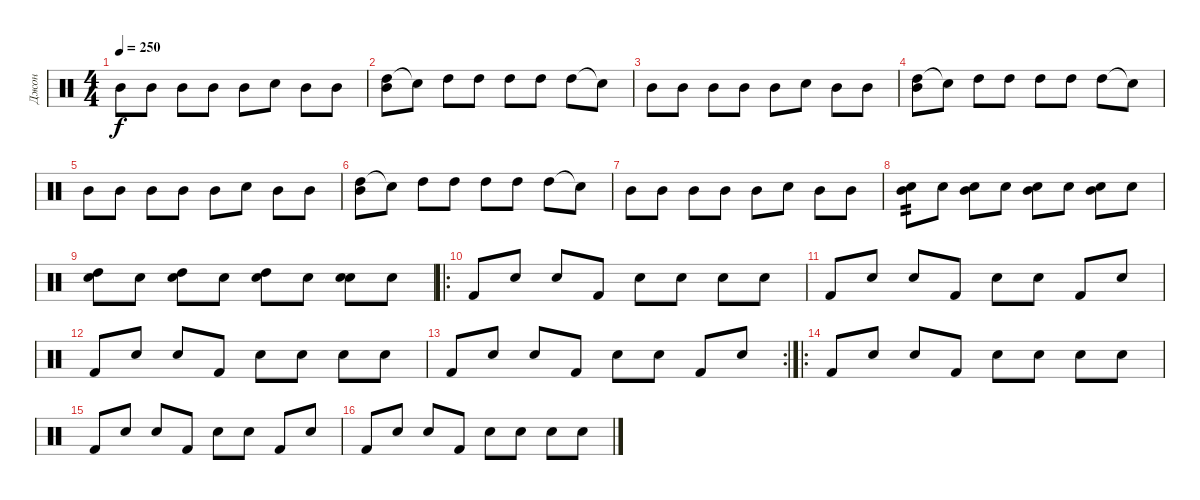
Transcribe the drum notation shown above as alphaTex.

\track ("Джон" "Джон") {instrument percussion}
\staff {score}
\articulation defaults
\ts (4 4)
\tempo 250
\clef neutral
\ks c "Mid Tom (hit)".8{dy f} "Mid Tom (hit)".8 "Mid Tom (hit)".8 "Mid Tom (hit)".8 "Mid Tom (hit)".8 "Snare (hit)".8 "Mid Tom (hit)".8 "Mid Tom (hit)".8
|
("High Tom (hit)" "Mid Tom (hit)").8 "Snare (hit)"{t}.8 "High Tom (hit)".8 "High Tom (hit)".8 "High Tom (hit)".8 "High Tom (hit)".8 "High Tom (hit)".8 "Snare (hit)"{t}.8 |
"Mid Tom (hit)".8 "Mid Tom (hit)".8 "Mid Tom (hit)".8 "Mid Tom (hit)".8 "Mid Tom (hit)".8 "Snare (hit)".8 "Mid Tom (hit)".8 "Mid Tom (hit)".8 |
("High Tom (hit)" "Mid Tom (hit)").8 "Snare (hit)"{t}.8 "High Tom (hit)".8 "High Tom (hit)".8 "High Tom (hit)".8 "High Tom (hit)".8 "High Tom (hit)".8 "Snare (hit)"{t}.8 |
"Mid Tom (hit)".8 "Mid Tom (hit)".8 "Mid Tom (hit)".8 "Mid Tom (hit)".8 "Mid Tom (hit)".8 "Snare (hit)".8 "Mid Tom (hit)".8 "Mid Tom (hit)".8 |
("High Tom (hit)" "Mid Tom (hit)").8 "Snare (hit)"{t}.8 "High Tom (hit)".8 "High Tom (hit)".8 "High Tom (hit)".8 "High Tom (hit)".8 "High Tom (hit)".8 "Snare (hit)"{t}.8 |
"Mid Tom (hit)".8 "Mid Tom (hit)".8 "Mid Tom (hit)".8 "Mid Tom (hit)".8 "Mid Tom (hit)".8 "Snare (hit)".8 "Mid Tom (hit)".8 "Mid Tom (hit)".8 |
("Snare (hit)" "Mid Tom (hit)").8{tp 2} "Snare (hit)".8 ("Snare (hit)" "Mid Tom (hit)").8 "Snare (hit)".8 ("Snare (hit)" "Mid Tom (hit)").8 "Snare (hit)".8 ("Snare (hit)" "Mid Tom (hit)").8 "Snare (hit)".8 |
("Snare (hit)" "High Tom (hit)").8 "Snare (hit)".8 ("Snare (hit)" "High Tom (hit)").8 "Snare (hit)".8 ("Snare (hit)" "High Tom (hit)").8 "Snare (hit)".8 ("Snare (hit)" "Electric Snare (hit)").8 "Snare (hit)".8 |
\ro "Kick (hit) 2".8 "Snare (hit)".8 "Snare (hit)".8 "Kick (hit) 2".8 "Electric Snare (hit)".8 "Snare (hit)".8 "Snare (hit)".8 "Electric Snare (hit)".8
|
"Kick (hit) 2".8 "Snare (hit)".8 "Snare (hit)".8 "Kick (hit) 2".8 "Electric Snare (hit)".8 "Snare (hit)".8 "Kick (hit) 2".8 "Snare (hit)".8 |
"Kick (hit) 2".8 "Snare (hit)".8 "Snare (hit)".8 "Kick (hit) 2".8 "Electric Snare (hit)".8 "Snare (hit)".8 "Snare (hit)".8 "Electric Snare (hit)".8 |
\rc 2 "Kick (hit) 2".8 "Snare (hit)".8 "Snare (hit)".8 "Kick (hit) 2".8 "Electric Snare (hit)".8 "Snare (hit)".8 "Kick (hit) 2".8 "Snare (hit)".8
|
\ro "Kick (hit) 2".8 "Snare (hit)".8 "Snare (hit)".8 "Kick (hit) 2".8 "Electric Snare (hit)".8 "Snare (hit)".8 "Snare (hit)".8 "Electric Snare (hit)".8
|
"Kick (hit) 2".8 "Snare (hit)".8 "Snare (hit)".8 "Kick (hit) 2".8 "Electric Snare (hit)".8 "Snare (hit)".8 "Kick (hit) 2".8 "Snare (hit)".8 |
"Kick (hit) 2".8 "Snare (hit)".8 "Snare (hit)".8 "Kick (hit) 2".8 "Electric Snare (hit)".8 "Snare (hit)".8 "Snare (hit)".8 "Electric Snare (hit)".8
